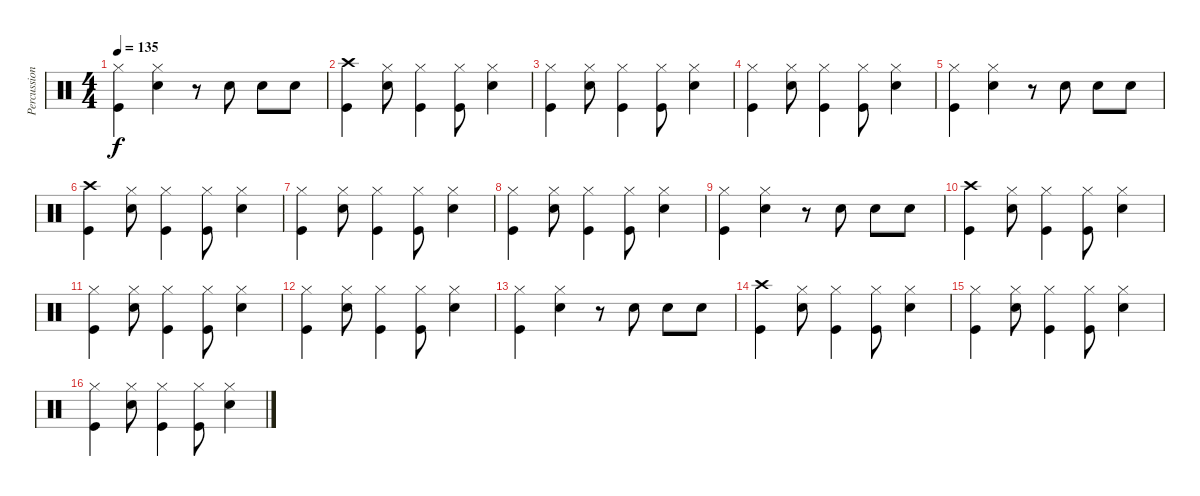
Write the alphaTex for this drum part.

\track ("Percussion" "Percussion") {instrument percussion}
\staff {score}
\articulation defaults
\ts (4 4)
\tempo 135
\clef neutral
\ks c
("Hi-Hat (closed)" "Kick (hit)").4{dy f} ("Hi-Hat (closed)" "Electric Snare (hit)").4 r.8 "Electric Snare (hit)".8 "Electric Snare (hit)".8 "Electric Snare (hit)".8 |
("Crash high (hit)" "Kick (hit)").4 ("Hi-Hat (closed)" "Electric Snare (hit)").8 ("Hi-Hat (closed)" "Kick (hit)").4 ("Hi-Hat (closed)" "Kick (hit)").8 ("Hi-Hat (closed)" "Electric Snare (hit)").4 |
("Hi-Hat (closed)" "Kick (hit)").4 ("Hi-Hat (closed)" "Electric Snare (hit)").8 ("Hi-Hat (closed)" "Kick (hit)").4 ("Hi-Hat (closed)" "Kick (hit)").8 ("Hi-Hat (closed)" "Electric Snare (hit)").4 |
("Hi-Hat (closed)" "Kick (hit)").4 ("Hi-Hat (closed)" "Electric Snare (hit)").8 ("Hi-Hat (closed)" "Kick (hit)").4 ("Hi-Hat (closed)" "Kick (hit)").8 ("Hi-Hat (closed)" "Electric Snare (hit)").4 |
("Hi-Hat (closed)" "Kick (hit)").4 ("Hi-Hat (closed)" "Electric Snare (hit)").4 r.8 "Electric Snare (hit)".8 "Electric Snare (hit)".8 "Electric Snare (hit)".8 |
("Crash high (hit)" "Kick (hit)").4 ("Hi-Hat (closed)" "Electric Snare (hit)").8 ("Hi-Hat (closed)" "Kick (hit)").4 ("Hi-Hat (closed)" "Kick (hit)").8 ("Hi-Hat (closed)" "Electric Snare (hit)").4 |
("Hi-Hat (closed)" "Kick (hit)").4 ("Hi-Hat (closed)" "Electric Snare (hit)").8 ("Hi-Hat (closed)" "Kick (hit)").4 ("Hi-Hat (closed)" "Kick (hit)").8 ("Hi-Hat (closed)" "Electric Snare (hit)").4 |
("Hi-Hat (closed)" "Kick (hit)").4 ("Hi-Hat (closed)" "Electric Snare (hit)").8 ("Hi-Hat (closed)" "Kick (hit)").4 ("Hi-Hat (closed)" "Kick (hit)").8 ("Hi-Hat (closed)" "Electric Snare (hit)").4 |
("Hi-Hat (closed)" "Kick (hit)").4 ("Hi-Hat (closed)" "Electric Snare (hit)").4 r.8 "Electric Snare (hit)".8 "Electric Snare (hit)".8 "Electric Snare (hit)".8 |
("Crash high (hit)" "Kick (hit)").4 ("Hi-Hat (closed)" "Electric Snare (hit)").8 ("Hi-Hat (closed)" "Kick (hit)").4 ("Hi-Hat (closed)" "Kick (hit)").8 ("Hi-Hat (closed)" "Electric Snare (hit)").4 |
("Hi-Hat (closed)" "Kick (hit)").4 ("Hi-Hat (closed)" "Electric Snare (hit)").8 ("Hi-Hat (closed)" "Kick (hit)").4 ("Hi-Hat (closed)" "Kick (hit)").8 ("Hi-Hat (closed)" "Electric Snare (hit)").4 |
("Hi-Hat (closed)" "Kick (hit)").4 ("Hi-Hat (closed)" "Electric Snare (hit)").8 ("Hi-Hat (closed)" "Kick (hit)").4 ("Hi-Hat (closed)" "Kick (hit)").8 ("Hi-Hat (closed)" "Electric Snare (hit)").4 |
("Hi-Hat (closed)" "Kick (hit)").4 ("Hi-Hat (closed)" "Electric Snare (hit)").4 r.8 "Electric Snare (hit)".8 "Electric Snare (hit)".8 "Electric Snare (hit)".8 |
("Crash high (hit)" "Kick (hit)").4 ("Hi-Hat (closed)" "Electric Snare (hit)").8 ("Hi-Hat (closed)" "Kick (hit)").4 ("Hi-Hat (closed)" "Kick (hit)").8 ("Hi-Hat (closed)" "Electric Snare (hit)").4 |
("Hi-Hat (closed)" "Kick (hit)").4 ("Hi-Hat (closed)" "Electric Snare (hit)").8 ("Hi-Hat (closed)" "Kick (hit)").4 ("Hi-Hat (closed)" "Kick (hit)").8 ("Hi-Hat (closed)" "Electric Snare (hit)").4 |
("Hi-Hat (closed)" "Kick (hit)").4 ("Hi-Hat (closed)" "Electric Snare (hit)").8 ("Hi-Hat (closed)" "Kick (hit)").4 ("Hi-Hat (closed)" "Kick (hit)").8 ("Hi-Hat (closed)" "Electric Snare (hit)").4
